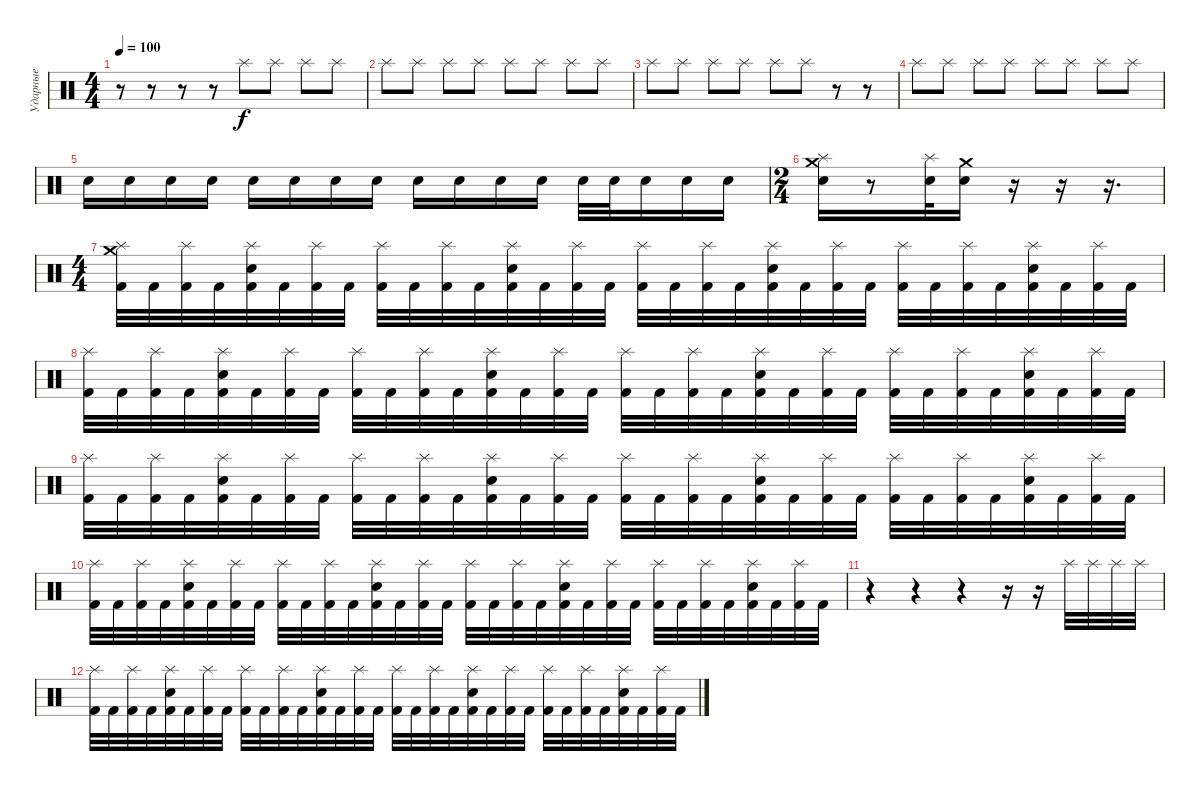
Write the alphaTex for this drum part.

\track ("Ударные" "Ударные") {instrument percussion}
\staff {score}
\articulation defaults
\ts (4 4)
\tempo 100
\clef neutral
\ks c
r.8{dy f} r.8 r.8 r.8 "Splash (hit)".8 "Splash (hit)".8 "Splash (hit)".8 "Splash (hit)".8 |
"Splash (hit)".8 "Splash (hit)".8 "Splash (hit)".8 "Splash (hit)".8 "Splash (hit)".8 "Splash (hit)".8 "Splash (hit)".8 "Splash (hit)".8 |
"Splash (hit)".8 "Splash (hit)".8 "Splash (hit)".8 "Splash (hit)".8 "Splash (hit)".8 "Splash (hit)".8 r.8 r.8 |
"Splash (hit)".8 "Splash (hit)".8 "Splash (hit)".8 "Splash (hit)".8 "Splash (hit)".8 "Splash (hit)".8 "Splash (hit)".8 "Splash (hit)".8 |
"Electric Snare (hit)".16 "Electric Snare (hit)".16 "Electric Snare (hit)".16 "Electric Snare (hit)".16 "Electric Snare (hit)".16 "Electric Snare (hit)".16 "Electric Snare (hit)".16 "Electric Snare (hit)".16 "Electric Snare (hit)".16 "Electric Snare (hit)".16 "Electric Snare (hit)".16 "Electric Snare (hit)".16 "Electric Snare (hit)".32 "Electric Snare (hit)".32 "Electric Snare (hit)".16 "Electric Snare (hit)".16 "Electric Snare (hit)".16 |
\ts (2 4)
("Splash (hit)" "Electric Snare (hit)" "Crash medium (hit)").16 r.8 ("Splash (hit)" "Electric Snare (hit)").32 ("Electric Snare (hit)" "Crash medium (hit)").16 r.16 r.16 r.16{d} |
\ts (4 4)
("Kick (hit) 2" "Splash (hit)" "Crash medium (hit)").32 "Kick (hit) 2".32 ("Kick (hit) 2" "Splash (hit)").32 "Kick (hit) 2".32 ("Kick (hit) 2" "Electric Snare (hit)" "Splash (hit)").32 "Kick (hit) 2".32 ("Kick (hit) 2" "Splash (hit)").32 "Kick (hit) 2".32 ("Kick (hit) 2" "Splash (hit)").32 "Kick (hit) 2".32 ("Kick (hit) 2" "Splash (hit)").32 "Kick (hit) 2".32 ("Kick (hit) 2" "Electric Snare (hit)" "Splash (hit)").32 "Kick (hit) 2".32 ("Kick (hit) 2" "Splash (hit)").32 "Kick (hit) 2".32 ("Kick (hit) 2" "Splash (hit)").32 "Kick (hit) 2".32 ("Kick (hit) 2" "Splash (hit)").32 "Kick (hit) 2".32 ("Kick (hit) 2" "Electric Snare (hit)" "Splash (hit)").32 "Kick (hit) 2".32 ("Kick (hit) 2" "Splash (hit)").32 "Kick (hit) 2".32 ("Kick (hit) 2" "Splash (hit)").32 "Kick (hit) 2".32 ("Kick (hit) 2" "Splash (hit)").32 "Kick (hit) 2".32 ("Kick (hit) 2" "Electric Snare (hit)" "Splash (hit)").32 "Kick (hit) 2".32 ("Kick (hit) 2" "Splash (hit)").32 "Kick (hit) 2".32 |
("Kick (hit) 2" "Splash (hit)").32 "Kick (hit) 2".32 ("Kick (hit) 2" "Splash (hit)").32 "Kick (hit) 2".32 ("Kick (hit) 2" "Electric Snare (hit)" "Splash (hit)").32 "Kick (hit) 2".32 ("Kick (hit) 2" "Splash (hit)").32 "Kick (hit) 2".32 ("Kick (hit) 2" "Splash (hit)").32 "Kick (hit) 2".32 ("Kick (hit) 2" "Splash (hit)").32 "Kick (hit) 2".32 ("Kick (hit) 2" "Electric Snare (hit)" "Splash (hit)").32 "Kick (hit) 2".32 ("Kick (hit) 2" "Splash (hit)").32 "Kick (hit) 2".32 ("Kick (hit) 2" "Splash (hit)").32 "Kick (hit) 2".32 ("Kick (hit) 2" "Splash (hit)").32 "Kick (hit) 2".32 ("Kick (hit) 2" "Electric Snare (hit)" "Splash (hit)").32 "Kick (hit) 2".32 ("Kick (hit) 2" "Splash (hit)").32 "Kick (hit) 2".32 ("Kick (hit) 2" "Splash (hit)").32 "Kick (hit) 2".32 ("Kick (hit) 2" "Splash (hit)").32 "Kick (hit) 2".32 ("Kick (hit) 2" "Electric Snare (hit)" "Splash (hit)").32 "Kick (hit) 2".32 ("Kick (hit) 2" "Splash (hit)").32 "Kick (hit) 2".32 |
("Kick (hit) 2" "Splash (hit)").32 "Kick (hit) 2".32 ("Kick (hit) 2" "Splash (hit)").32 "Kick (hit) 2".32 ("Kick (hit) 2" "Electric Snare (hit)" "Splash (hit)").32 "Kick (hit) 2".32 ("Kick (hit) 2" "Splash (hit)").32 "Kick (hit) 2".32 ("Kick (hit) 2" "Splash (hit)").32 "Kick (hit) 2".32 ("Kick (hit) 2" "Splash (hit)").32 "Kick (hit) 2".32 ("Kick (hit) 2" "Electric Snare (hit)" "Splash (hit)").32 "Kick (hit) 2".32 ("Kick (hit) 2" "Splash (hit)").32 "Kick (hit) 2".32 ("Kick (hit) 2" "Splash (hit)").32 "Kick (hit) 2".32 ("Kick (hit) 2" "Splash (hit)").32 "Kick (hit) 2".32 ("Kick (hit) 2" "Electric Snare (hit)" "Splash (hit)").32 "Kick (hit) 2".32 ("Kick (hit) 2" "Splash (hit)").32 "Kick (hit) 2".32 ("Kick (hit) 2" "Splash (hit)").32 "Kick (hit) 2".32 ("Kick (hit) 2" "Splash (hit)").32 "Kick (hit) 2".32 ("Kick (hit) 2" "Electric Snare (hit)" "Splash (hit)").32 "Kick (hit) 2".32 ("Kick (hit) 2" "Splash (hit)").32 "Kick (hit) 2".32 |
("Kick (hit) 2" "Splash (hit)").32 "Kick (hit) 2".32 ("Kick (hit) 2" "Splash (hit)").32 "Kick (hit) 2".32 ("Kick (hit) 2" "Electric Snare (hit)" "Splash (hit)").32 "Kick (hit) 2".32 ("Kick (hit) 2" "Splash (hit)").32 "Kick (hit) 2".32 ("Kick (hit) 2" "Splash (hit)").32 "Kick (hit) 2".32 ("Kick (hit) 2" "Splash (hit)").32 "Kick (hit) 2".32 ("Kick (hit) 2" "Electric Snare (hit)" "Splash (hit)").32 "Kick (hit) 2".32 ("Kick (hit) 2" "Splash (hit)").32 "Kick (hit) 2".32 ("Kick (hit) 2" "Splash (hit)").32 "Kick (hit) 2".32 ("Kick (hit) 2" "Splash (hit)").32 "Kick (hit) 2".32 ("Kick (hit) 2" "Electric Snare (hit)" "Splash (hit)").32 "Kick (hit) 2".32 ("Kick (hit) 2" "Splash (hit)").32 "Kick (hit) 2".32 ("Kick (hit) 2" "Splash (hit)").32 "Kick (hit) 2".32 ("Kick (hit) 2" "Splash (hit)").32 "Kick (hit) 2".32 ("Kick (hit) 2" "Electric Snare (hit)" "Splash (hit)").32 "Kick (hit) 2".32 ("Kick (hit) 2" "Splash (hit)").32 "Kick (hit) 2".32 |
r.4 r.4 r.4 r.16 r.16 "Splash (hit)".32 "Splash (hit)".32 "Splash (hit)".32 "Splash (hit)".32 |
("Kick (hit) 2" "Splash (hit)").32 "Kick (hit) 2".32 ("Kick (hit) 2" "Splash (hit)").32 "Kick (hit) 2".32 ("Kick (hit) 2" "Electric Snare (hit)" "Splash (hit)").32 "Kick (hit) 2".32 ("Kick (hit) 2" "Splash (hit)").32 "Kick (hit) 2".32 ("Kick (hit) 2" "Splash (hit)").32 "Kick (hit) 2".32 ("Kick (hit) 2" "Splash (hit)").32 "Kick (hit) 2".32 ("Kick (hit) 2" "Electric Snare (hit)" "Splash (hit)").32 "Kick (hit) 2".32 ("Kick (hit) 2" "Splash (hit)").32 "Kick (hit) 2".32 ("Kick (hit) 2" "Splash (hit)").32 "Kick (hit) 2".32 ("Kick (hit) 2" "Splash (hit)").32 "Kick (hit) 2".32 ("Kick (hit) 2" "Electric Snare (hit)" "Splash (hit)").32 "Kick (hit) 2".32 ("Kick (hit) 2" "Splash (hit)").32 "Kick (hit) 2".32 ("Kick (hit) 2" "Splash (hit)").32 "Kick (hit) 2".32 ("Kick (hit) 2" "Splash (hit)").32 "Kick (hit) 2".32 ("Kick (hit) 2" "Electric Snare (hit)" "Splash (hit)").32 "Kick (hit) 2".32 ("Kick (hit) 2" "Splash (hit)").32 "Kick (hit) 2".32
